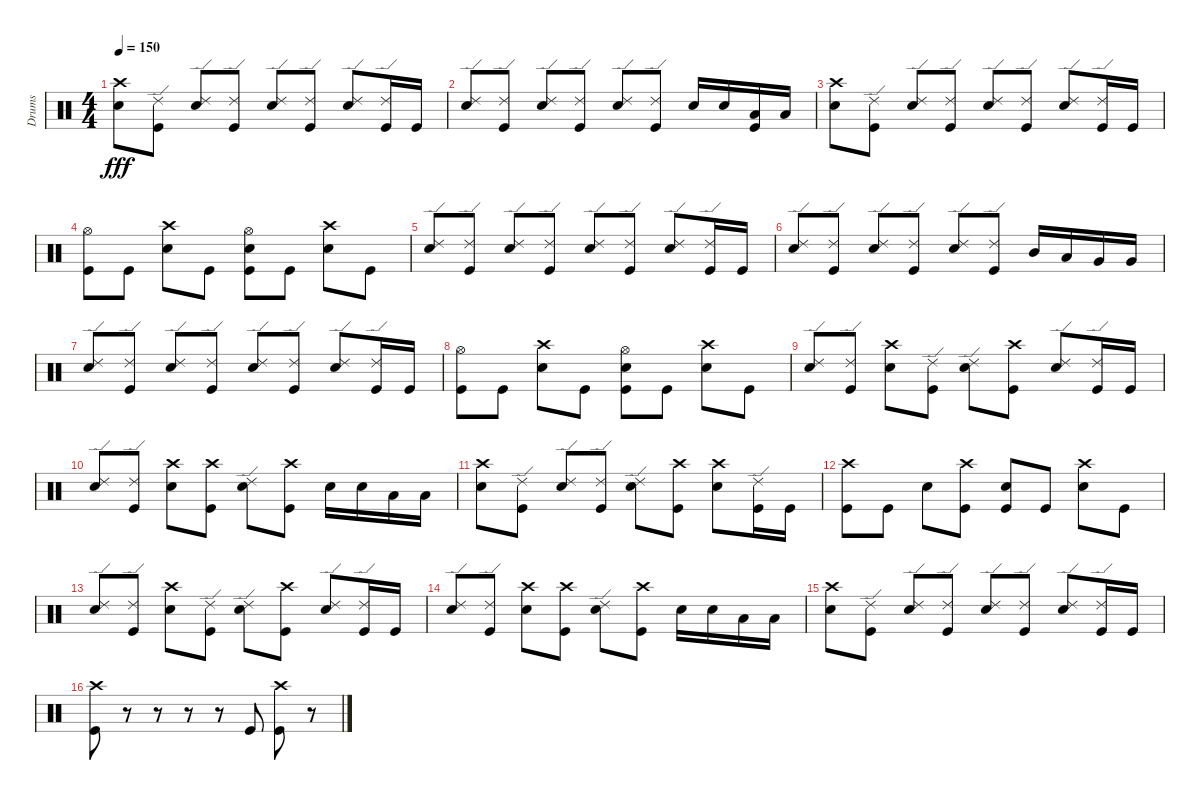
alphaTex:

\track ("Drums" "Drums") {instrument percussion}
\staff {score}
\articulation defaults
\ts (4 4)
\tempo 150
\clef neutral
\ks c
("Crash high (hit)" "Snare (hit) 2").8{dy fff} ("Ride (edge) 2" "Kick (hit)").8 ("Ride (edge) 2" "Snare (hit) 2").8 ("Ride (edge) 2" "Kick (hit)").8 ("Ride (edge) 2" "Snare (hit) 2").8 ("Ride (edge) 2" "Kick (hit)").8 ("Ride (edge) 2" "Snare (hit) 2").8 ("Ride (edge) 2" "Kick (hit)").16 "Kick (hit)".16 |
("Ride (edge) 2" "Snare (hit) 2").8 ("Ride (edge) 2" "Kick (hit)").8 ("Ride (edge) 2" "Snare (hit) 2").8 ("Ride (edge) 2" "Kick (hit)").8 ("Ride (edge) 2" "Snare (hit) 2").8 ("Ride (edge) 2" "Kick (hit)").8 "Snare (hit) 2".16 "Snare (hit) 2".16 ("Low Tom (hit)" "Kick (hit)").16 "Low Tom (hit)".16 |
("Crash high (hit)" "Snare (hit) 2").8 ("Ride (edge) 2" "Kick (hit)").8 ("Ride (edge) 2" "Snare (hit) 2").8 ("Ride (edge) 2" "Kick (hit)").8 ("Ride (edge) 2" "Snare (hit) 2").8 ("Ride (edge) 2" "Kick (hit)").8 ("Ride (edge) 2" "Snare (hit) 2").8 ("Ride (edge) 2" "Kick (hit)").16 "Kick (hit)".16 |
("Hi-Hat (open)" "Kick (hit)").8 "Kick (hit)".8 ("Crash high (hit)" "Snare (hit) 2").8 "Kick (hit)".8 ("Hi-Hat (open)" "Snare (hit) 2" "Kick (hit)").8 "Kick (hit)".8 ("Crash high (hit)" "Snare (hit) 2").8 "Kick (hit)".8 |
("Ride (edge) 2" "Snare (hit) 2").8 ("Ride (edge) 2" "Kick (hit)").8 ("Ride (edge) 2" "Snare (hit) 2").8 ("Ride (edge) 2" "Kick (hit)").8 ("Ride (edge) 2" "Snare (hit) 2").8 ("Ride (edge) 2" "Kick (hit)").8 ("Ride (edge) 2" "Snare (hit) 2").8 ("Ride (edge) 2" "Kick (hit)").16 "Kick (hit)".16 |
("Ride (edge) 2" "Snare (hit) 2").8 ("Ride (edge) 2" "Kick (hit)").8 ("Ride (edge) 2" "Snare (hit) 2").8 ("Ride (edge) 2" "Kick (hit)").8 ("Ride (edge) 2" "Snare (hit) 2").8 ("Ride (edge) 2" "Kick (hit)").8 "Mid Tom (hit)".16 "Low Tom (hit)".16 "Very Low Tom (hit)".16 "Very Low Tom (hit)".16 |
("Ride (edge) 2" "Snare (hit) 2").8 ("Ride (edge) 2" "Kick (hit)").8 ("Ride (edge) 2" "Snare (hit) 2").8 ("Ride (edge) 2" "Kick (hit)").8 ("Ride (edge) 2" "Snare (hit) 2").8 ("Ride (edge) 2" "Kick (hit)").8 ("Ride (edge) 2" "Snare (hit) 2").8 ("Ride (edge) 2" "Kick (hit)").16 "Kick (hit)".16 |
("Hi-Hat (open)" "Kick (hit)").8 "Kick (hit)".8 ("Crash high (hit)" "Snare (hit) 2").8 "Kick (hit)".8 ("Hi-Hat (open)" "Snare (hit) 2" "Kick (hit)").8 "Kick (hit)".8 ("Crash high (hit)" "Snare (hit) 2").8 "Kick (hit)".8 |
("Ride (edge) 2" "Snare (hit) 2").8 ("Ride (edge) 2" "Kick (hit)").8 ("Crash high (hit)" "Snare (hit) 2").8 ("Ride (edge) 2" "Kick (hit)").8 ("Ride (edge) 2" "Snare (hit) 2").8 ("Crash high (hit)" "Kick (hit)").8 ("Ride (edge) 2" "Snare (hit) 2").8 ("Ride (edge) 2" "Kick (hit)").16 "Kick (hit)".16 |
("Ride (edge) 2" "Snare (hit) 2").8 ("Ride (edge) 2" "Kick (hit)").8 ("Crash high (hit)" "Snare (hit) 2").8 ("Crash high (hit)" "Kick (hit)").8 ("Ride (edge) 2" "Snare (hit) 2").8 ("Crash high (hit)" "Kick (hit)").8 "Snare (hit) 2".16 "Snare (hit) 2".16 "Low Tom (hit)".16 "Low Tom (hit)".16 |
("Crash high (hit)" "Snare (hit) 2").8 ("Ride (edge) 2" "Kick (hit)").8 ("Ride (edge) 2" "Snare (hit) 2").8 ("Ride (edge) 2" "Kick (hit)").8 ("Ride (edge) 2" "Snare (hit) 2").8 ("Crash high (hit)" "Kick (hit)").8 ("Crash high (hit)" "Snare (hit) 2").8 ("Ride (edge) 2" "Kick (hit)").16 "Kick (hit)".16 |
("Crash high (hit)" "Kick (hit)").8 "Kick (hit)".8 "Snare (hit) 2".8 ("Crash high (hit)" "Kick (hit)").8 ("Snare (hit) 2" "Kick (hit)").8 "Kick (hit)".8 ("Crash high (hit)" "Snare (hit) 2").8 "Kick (hit)".8 |
("Ride (edge) 2" "Snare (hit) 2").8 ("Ride (edge) 2" "Kick (hit)").8 ("Crash high (hit)" "Snare (hit) 2").8 ("Ride (edge) 2" "Kick (hit)").8 ("Ride (edge) 2" "Snare (hit) 2").8 ("Crash high (hit)" "Kick (hit)").8 ("Ride (edge) 2" "Snare (hit) 2").8 ("Ride (edge) 2" "Kick (hit)").16 "Kick (hit)".16 |
("Ride (edge) 2" "Snare (hit) 2").8 ("Ride (edge) 2" "Kick (hit)").8 ("Crash high (hit)" "Snare (hit) 2").8 ("Crash high (hit)" "Kick (hit)").8 ("Ride (edge) 2" "Snare (hit) 2").8 ("Crash high (hit)" "Kick (hit)").8 "Snare (hit) 2".16 "Snare (hit) 2".16 "Low Tom (hit)".16 "Low Tom (hit)".16 |
("Crash high (hit)" "Snare (hit) 2").8 ("Ride (edge) 2" "Kick (hit)").8 ("Ride (edge) 2" "Snare (hit) 2").8 ("Ride (edge) 2" "Kick (hit)").8 ("Ride (edge) 2" "Snare (hit) 2").8 ("Ride (edge) 2" "Kick (hit)").8 ("Ride (edge) 2" "Snare (hit) 2").8 ("Ride (edge) 2" "Kick (hit)").16 "Kick (hit)".16 |
("Crash high (hit)" "Kick (hit)").8 r.8 r.8 r.8 r.8 "Kick (hit)".8 ("Crash high (hit)" "Kick (hit)").8 r.8
